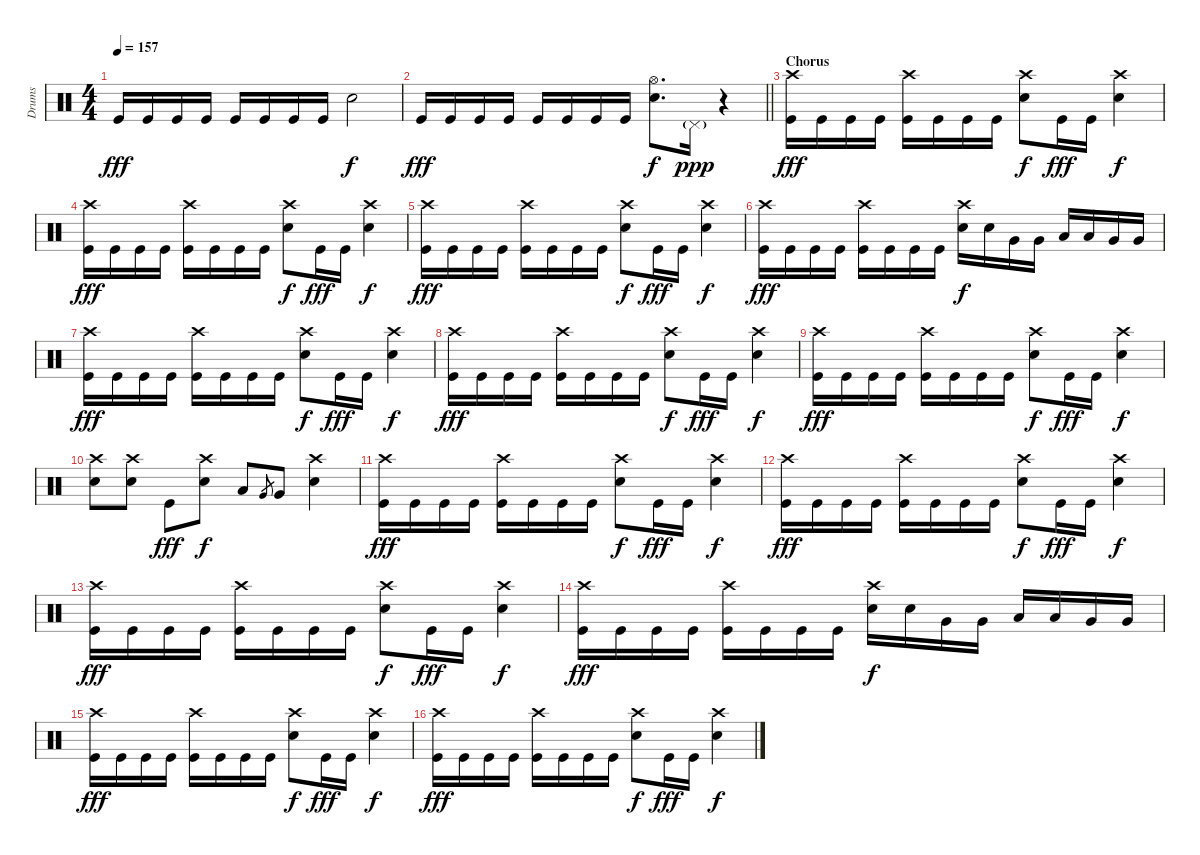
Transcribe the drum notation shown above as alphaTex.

\track ("Drums" "Drums") {instrument percussion}
\staff {score}
\articulation defaults
\ts (4 4)
\tempo 157
\clef neutral
\ks c "Kick (hit)".16{dy fff} "Kick (hit)".16 "Kick (hit)".16 "Kick (hit)".16 "Kick (hit)".16 "Kick (hit)".16 "Kick (hit)".16 "Kick (hit)".16 "Snare (hit) 2".2{dy f}
|
\barLineRight lightlight "Kick (hit)".16{dy fff} "Kick (hit)".16 "Kick (hit)".16 "Kick (hit)".16 "Kick (hit)".16 "Kick (hit)".16 "Kick (hit)".16 "Kick (hit)".16
("Hi-Hat (open)" "Snare (hit) 2").8{d dy f} "Pedal Hi-Hat (hit)"{g}.16{dy ppp} r.4 |
\section ("" "Chorus")
("Crash high (hit)" "Kick (hit)").16{dy fff} "Kick (hit)".16 "Kick (hit)".16 "Kick (hit)".16 ("Crash high (hit)" "Kick (hit)").16 "Kick (hit)".16 "Kick (hit)".16 "Kick (hit)".16 ("Crash high (hit)" "Snare (hit) 2").8{dy f} "Kick (hit)".16{dy fff} "Kick (hit)".16 ("Crash high (hit)" "Snare (hit) 2").4{dy f} |
("Crash high (hit)" "Kick (hit)").16{dy fff} "Kick (hit)".16 "Kick (hit)".16 "Kick (hit)".16 ("Crash high (hit)" "Kick (hit)").16 "Kick (hit)".16 "Kick (hit)".16 "Kick (hit)".16 ("Crash high (hit)" "Snare (hit) 2").8{dy f} "Kick (hit)".16{dy fff} "Kick (hit)".16 ("Crash high (hit)" "Snare (hit) 2").4{dy f} |
("Crash high (hit)" "Kick (hit)").16{dy fff} "Kick (hit)".16 "Kick (hit)".16 "Kick (hit)".16 ("Crash high (hit)" "Kick (hit)").16 "Kick (hit)".16 "Kick (hit)".16 "Kick (hit)".16 ("Crash high (hit)" "Snare (hit) 2").8{dy f} "Kick (hit)".16{dy fff} "Kick (hit)".16 ("Crash high (hit)" "Snare (hit) 2").4{dy f} |
("Crash high (hit)" "Kick (hit)").16{dy fff} "Kick (hit)".16 "Kick (hit)".16 "Kick (hit)".16 ("Crash high (hit)" "Kick (hit)").16 "Kick (hit)".16 "Kick (hit)".16 "Kick (hit)".16 ("Crash high (hit)" "Snare (hit) 2").16{dy f} "Snare (hit) 2".16 "Very Low Tom (hit)".16 "Very Low Tom (hit)".16 "Low Tom (hit)".16 "Low Tom (hit)".16 "Very Low Tom (hit)".16 "Very Low Tom (hit)".16 |
("Crash high (hit)" "Kick (hit)").16{dy fff} "Kick (hit)".16 "Kick (hit)".16 "Kick (hit)".16 ("Crash high (hit)" "Kick (hit)").16 "Kick (hit)".16 "Kick (hit)".16 "Kick (hit)".16 ("Crash high (hit)" "Snare (hit) 2").8{dy f} "Kick (hit)".16{dy fff} "Kick (hit)".16 ("Crash high (hit)" "Snare (hit) 2").4{dy f} |
("Crash high (hit)" "Kick (hit)").16{dy fff} "Kick (hit)".16 "Kick (hit)".16 "Kick (hit)".16 ("Crash high (hit)" "Kick (hit)").16 "Kick (hit)".16 "Kick (hit)".16 "Kick (hit)".16 ("Crash high (hit)" "Snare (hit) 2").8{dy f} "Kick (hit)".16{dy fff} "Kick (hit)".16 ("Crash high (hit)" "Snare (hit) 2").4{dy f} |
("Crash high (hit)" "Kick (hit)").16{dy fff} "Kick (hit)".16 "Kick (hit)".16 "Kick (hit)".16 ("Crash high (hit)" "Kick (hit)").16 "Kick (hit)".16 "Kick (hit)".16 "Kick (hit)".16 ("Crash high (hit)" "Snare (hit) 2").8{dy f} "Kick (hit)".16{dy fff} "Kick (hit)".16 ("Crash high (hit)" "Snare (hit) 2").4{dy f} |
("Crash high (hit)" "Snare (hit) 2").8 ("Crash high (hit)" "Snare (hit) 2").8 "Kick (hit)".8{dy fff} ("Crash high (hit)" "Snare (hit) 2").8{dy f} "Low Tom (hit)".8 "Very Low Tom (hit)".8{gr} "Very Low Tom (hit)".8 ("Crash high (hit)" "Snare (hit) 2").4 |
("Crash high (hit)" "Kick (hit)").16{dy fff} "Kick (hit)".16 "Kick (hit)".16 "Kick (hit)".16 ("Crash high (hit)" "Kick (hit)").16 "Kick (hit)".16 "Kick (hit)".16 "Kick (hit)".16 ("Crash high (hit)" "Snare (hit) 2").8{dy f} "Kick (hit)".16{dy fff} "Kick (hit)".16 ("Crash high (hit)" "Snare (hit) 2").4{dy f} |
("Crash high (hit)" "Kick (hit)").16{dy fff} "Kick (hit)".16 "Kick (hit)".16 "Kick (hit)".16 ("Crash high (hit)" "Kick (hit)").16 "Kick (hit)".16 "Kick (hit)".16 "Kick (hit)".16 ("Crash high (hit)" "Snare (hit) 2").8{dy f} "Kick (hit)".16{dy fff} "Kick (hit)".16 ("Crash high (hit)" "Snare (hit) 2").4{dy f} |
("Crash high (hit)" "Kick (hit)").16{dy fff} "Kick (hit)".16 "Kick (hit)".16 "Kick (hit)".16 ("Crash high (hit)" "Kick (hit)").16 "Kick (hit)".16 "Kick (hit)".16 "Kick (hit)".16 ("Crash high (hit)" "Snare (hit) 2").8{dy f} "Kick (hit)".16{dy fff} "Kick (hit)".16 ("Crash high (hit)" "Snare (hit) 2").4{dy f} |
("Crash high (hit)" "Kick (hit)").16{dy fff} "Kick (hit)".16 "Kick (hit)".16 "Kick (hit)".16 ("Crash high (hit)" "Kick (hit)").16 "Kick (hit)".16 "Kick (hit)".16 "Kick (hit)".16 ("Crash high (hit)" "Snare (hit) 2").16{dy f} "Snare (hit) 2".16 "Very Low Tom (hit)".16 "Very Low Tom (hit)".16 "Low Tom (hit)".16 "Low Tom (hit)".16 "Very Low Tom (hit)".16 "Very Low Tom (hit)".16 |
("Crash high (hit)" "Kick (hit)").16{dy fff} "Kick (hit)".16 "Kick (hit)".16 "Kick (hit)".16 ("Crash high (hit)" "Kick (hit)").16 "Kick (hit)".16 "Kick (hit)".16 "Kick (hit)".16 ("Crash high (hit)" "Snare (hit) 2").8{dy f} "Kick (hit)".16{dy fff} "Kick (hit)".16 ("Crash high (hit)" "Snare (hit) 2").4{dy f} |
("Crash high (hit)" "Kick (hit)").16{dy fff} "Kick (hit)".16 "Kick (hit)".16 "Kick (hit)".16 ("Crash high (hit)" "Kick (hit)").16 "Kick (hit)".16 "Kick (hit)".16 "Kick (hit)".16 ("Crash high (hit)" "Snare (hit) 2").8{dy f} "Kick (hit)".16{dy fff} "Kick (hit)".16 ("Crash high (hit)" "Snare (hit) 2").4{dy f}
